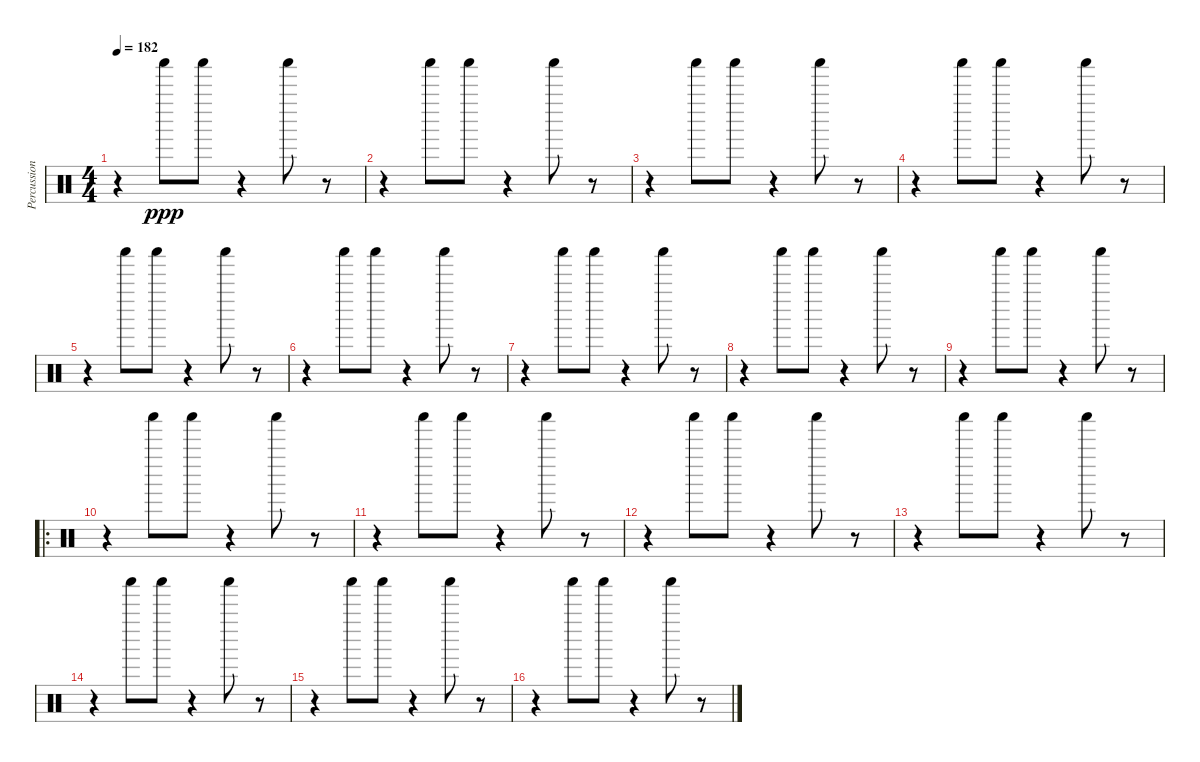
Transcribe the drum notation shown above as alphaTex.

\track ("Percussion2" "Percussion") {instrument percussion}
\staff {score}
\articulation defaults
\ts (4 4)
\tempo 182
\clef neutral
\ks c
r.4{dy ppp} "Shaker (hit)".8 "Shaker (hit)".8 r.4 "Shaker (hit)".8 r.8 |
r.4 "Shaker (hit)".8 "Shaker (hit)".8 r.4 "Shaker (hit)".8 r.8 |
r.4 "Shaker (hit)".8 "Shaker (hit)".8 r.4 "Shaker (hit)".8 r.8 |
r.4 "Shaker (hit)".8 "Shaker (hit)".8 r.4 "Shaker (hit)".8 r.8 |
r.4 "Shaker (hit)".8 "Shaker (hit)".8 r.4 "Shaker (hit)".8 r.8 |
r.4 "Shaker (hit)".8 "Shaker (hit)".8 r.4 "Shaker (hit)".8 r.8 |
r.4 "Shaker (hit)".8 "Shaker (hit)".8 r.4 "Shaker (hit)".8 r.8 |
r.4 "Shaker (hit)".8 "Shaker (hit)".8 r.4 "Shaker (hit)".8 r.8 |
r.4 "Shaker (hit)".8 "Shaker (hit)".8 r.4 "Shaker (hit)".8 r.8 |
\ro
r.4 "Shaker (hit)".8 "Shaker (hit)".8 r.4 "Shaker (hit)".8 r.8 |
r.4 "Shaker (hit)".8 "Shaker (hit)".8 r.4 "Shaker (hit)".8 r.8 |
r.4 "Shaker (hit)".8 "Shaker (hit)".8 r.4 "Shaker (hit)".8 r.8 |
r.4 "Shaker (hit)".8 "Shaker (hit)".8 r.4 "Shaker (hit)".8 r.8 |
r.4 "Shaker (hit)".8 "Shaker (hit)".8 r.4 "Shaker (hit)".8 r.8 |
r.4 "Shaker (hit)".8 "Shaker (hit)".8 r.4 "Shaker (hit)".8 r.8 |
r.4 "Shaker (hit)".8 "Shaker (hit)".8 r.4 "Shaker (hit)".8 r.8
